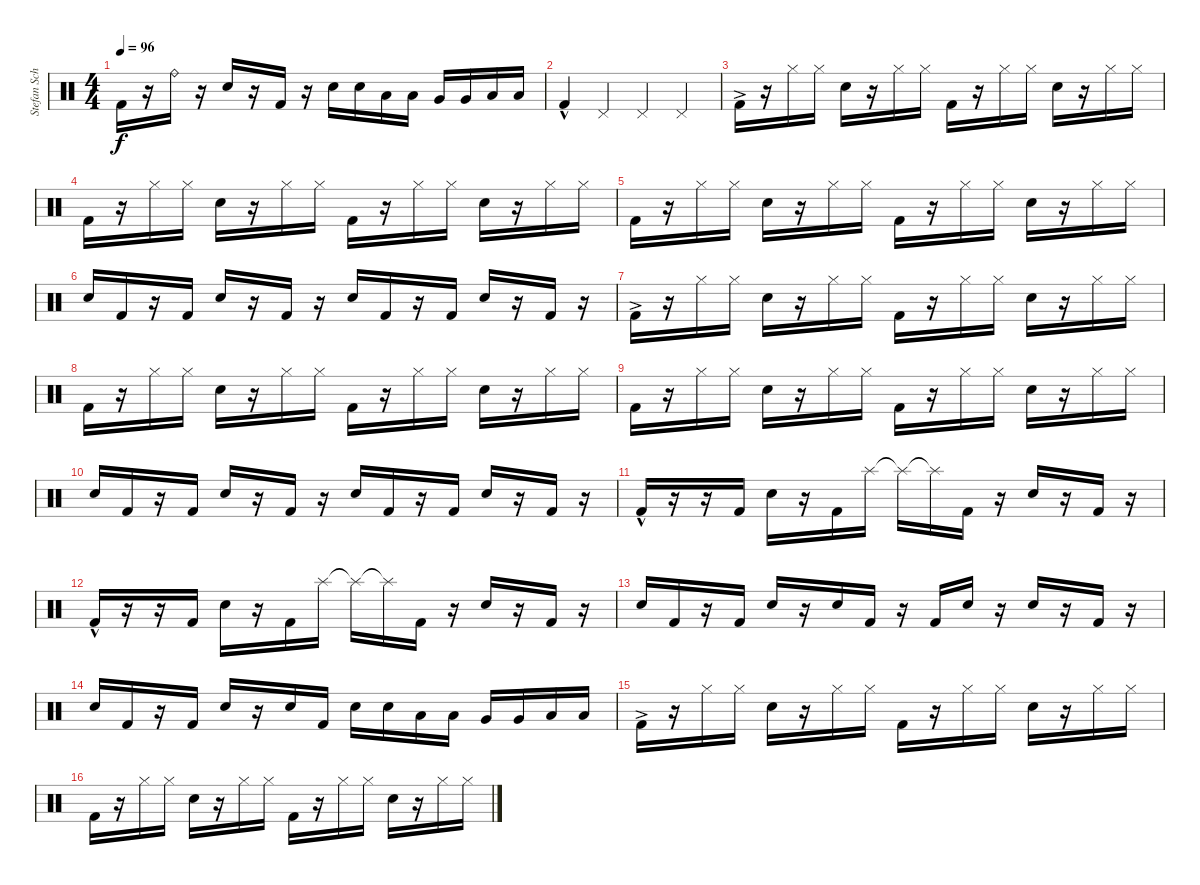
\track ("Stefan Schwarzmann" "Stefan Sch") {instrument percussion}
\staff {score}
\articulation defaults
\ts (4 4)
\tempo 96
\clef neutral
\ks c "Kick (hit) 2".16{dy f}
r.16 "Ride (bell)".16 r.16 "Snare (hit) 2".16 r.16 "Kick (hit) 2".16 r.16 "Snare (hit) 2".16 "Snare (hit) 2".16 "Low Tom (hit)".16 "Low Tom (hit)".16 "Very Low Tom (hit)".16 "Very Low Tom (hit)".16 "Low Floor Tom (hit)".16 "Low Floor Tom (hit)".16 |
"Kick (hit) 2"{hac}.4 "Pedal Hi-Hat (hit)".4 "Pedal Hi-Hat (hit)".4 "Pedal Hi-Hat (hit)".4 |
"Kick (hit) 2"{ac}.16 r.16 "Hi-Hat (closed)".16 "Hi-Hat (closed)".16 "Snare (hit) 2".16 r.16 "Hi-Hat (closed)".16 "Hi-Hat (closed)".16 "Kick (hit) 2".16 r.16 "Hi-Hat (closed)".16 "Hi-Hat (closed)".16 "Snare (hit) 2".16 r.16 "Hi-Hat (closed)".16 "Hi-Hat (closed)".16 |
"Kick (hit) 2".16 r.16 "Hi-Hat (closed)".16 "Hi-Hat (closed)".16 "Snare (hit) 2".16 r.16 "Hi-Hat (closed)".16 "Hi-Hat (closed)".16 "Kick (hit) 2".16 r.16 "Hi-Hat (closed)".16 "Hi-Hat (closed)".16 "Snare (hit) 2".16 r.16 "Hi-Hat (closed)".16 "Hi-Hat (closed)".16 |
"Kick (hit) 2".16 r.16 "Hi-Hat (closed)".16 "Hi-Hat (closed)".16 "Snare (hit) 2".16 r.16 "Hi-Hat (closed)".16 "Hi-Hat (closed)".16 "Kick (hit) 2".16 r.16 "Hi-Hat (closed)".16 "Hi-Hat (closed)".16 "Snare (hit) 2".16 r.16 "Hi-Hat (closed)".16 "Hi-Hat (closed)".16 |
"Snare (hit) 2".16 "Kick (hit) 2".16 r.16 "Kick (hit) 2".16 "Snare (hit) 2".16 r.16 "Kick (hit) 2".16 r.16 "Snare (hit) 2".16 "Kick (hit) 2".16 r.16 "Kick (hit) 2".16 "Snare (hit) 2".16 r.16 "Kick (hit) 2".16 r.16 |
"Kick (hit) 2"{ac}.16 r.16 "Hi-Hat (closed)".16 "Hi-Hat (closed)".16 "Snare (hit) 2".16 r.16 "Hi-Hat (closed)".16 "Hi-Hat (closed)".16 "Kick (hit) 2".16 r.16 "Hi-Hat (closed)".16 "Hi-Hat (closed)".16 "Snare (hit) 2".16 r.16 "Hi-Hat (closed)".16 "Hi-Hat (closed)".16 |
"Kick (hit) 2".16 r.16 "Hi-Hat (closed)".16 "Hi-Hat (closed)".16 "Snare (hit) 2".16 r.16 "Hi-Hat (closed)".16 "Hi-Hat (closed)".16 "Kick (hit) 2".16 r.16 "Hi-Hat (closed)".16 "Hi-Hat (closed)".16 "Snare (hit) 2".16 r.16 "Hi-Hat (closed)".16 "Hi-Hat (closed)".16 |
"Kick (hit) 2".16 r.16 "Hi-Hat (closed)".16 "Hi-Hat (closed)".16 "Snare (hit) 2".16 r.16 "Hi-Hat (closed)".16 "Hi-Hat (closed)".16 "Kick (hit) 2".16 r.16 "Hi-Hat (closed)".16 "Hi-Hat (closed)".16 "Snare (hit) 2".16 r.16 "Hi-Hat (closed)".16 "Hi-Hat (closed)".16 |
"Snare (hit) 2".16 "Kick (hit) 2".16 r.16 "Kick (hit) 2".16 "Snare (hit) 2".16 r.16 "Kick (hit) 2".16 r.16 "Snare (hit) 2".16 "Kick (hit) 2".16 r.16 "Kick (hit) 2".16 "Snare (hit) 2".16 r.16 "Kick (hit) 2".16 r.16 |
"Kick (hit) 2"{hac}.16 r.16 r.16 "Kick (hit) 2".16 "Snare (hit) 2".16 r.16 "Kick (hit) 2".16 "Splash (hit)".16 "Splash (hit)"{t}.16 "Splash (hit)"{t}.16 "Kick (hit) 2".16 r.16 "Snare (hit) 2".16 r.16 "Kick (hit) 2".16 r.16 |
"Kick (hit) 2"{hac}.16 r.16 r.16 "Kick (hit) 2".16 "Snare (hit) 2".16 r.16 "Kick (hit) 2".16 "Splash (hit)".16 "Splash (hit)"{t}.16 "Splash (hit)"{t}.16 "Kick (hit) 2".16 r.16 "Snare (hit) 2".16 r.16 "Kick (hit) 2".16 r.16 |
"Snare (hit) 2".16 "Kick (hit) 2".16 r.16 "Kick (hit) 2".16 "Snare (hit) 2".16 r.16 "Snare (hit) 2".16 "Kick (hit) 2".16 r.16 "Kick (hit) 2".16 "Snare (hit) 2".16 r.16 "Snare (hit) 2".16 r.16 "Kick (hit) 2".16 r.16 |
"Snare (hit) 2".16 "Kick (hit) 2".16 r.16 "Kick (hit) 2".16 "Snare (hit) 2".16 r.16 "Snare (hit) 2".16 "Kick (hit) 2".16 "Snare (hit) 2".16 "Snare (hit) 2".16 "Low Tom (hit)".16 "Low Tom (hit)".16 "Very Low Tom (hit)".16 "Very Low Tom (hit)".16 "Low Floor Tom (hit)".16 "Low Floor Tom (hit)".16 |
"Kick (hit) 2"{ac}.16 r.16 "Hi-Hat (closed)".16 "Hi-Hat (closed)".16 "Snare (hit) 2".16 r.16 "Hi-Hat (closed)".16 "Hi-Hat (closed)".16 "Kick (hit) 2".16 r.16 "Hi-Hat (closed)".16 "Hi-Hat (closed)".16 "Snare (hit) 2".16 r.16 "Hi-Hat (closed)".16 "Hi-Hat (closed)".16 |
"Kick (hit) 2".16 r.16 "Hi-Hat (closed)".16 "Hi-Hat (closed)".16 "Snare (hit) 2".16 r.16 "Hi-Hat (closed)".16 "Hi-Hat (closed)".16 "Kick (hit) 2".16 r.16 "Hi-Hat (closed)".16 "Hi-Hat (closed)".16 "Snare (hit) 2".16 r.16 "Hi-Hat (closed)".16 "Hi-Hat (closed)".16
